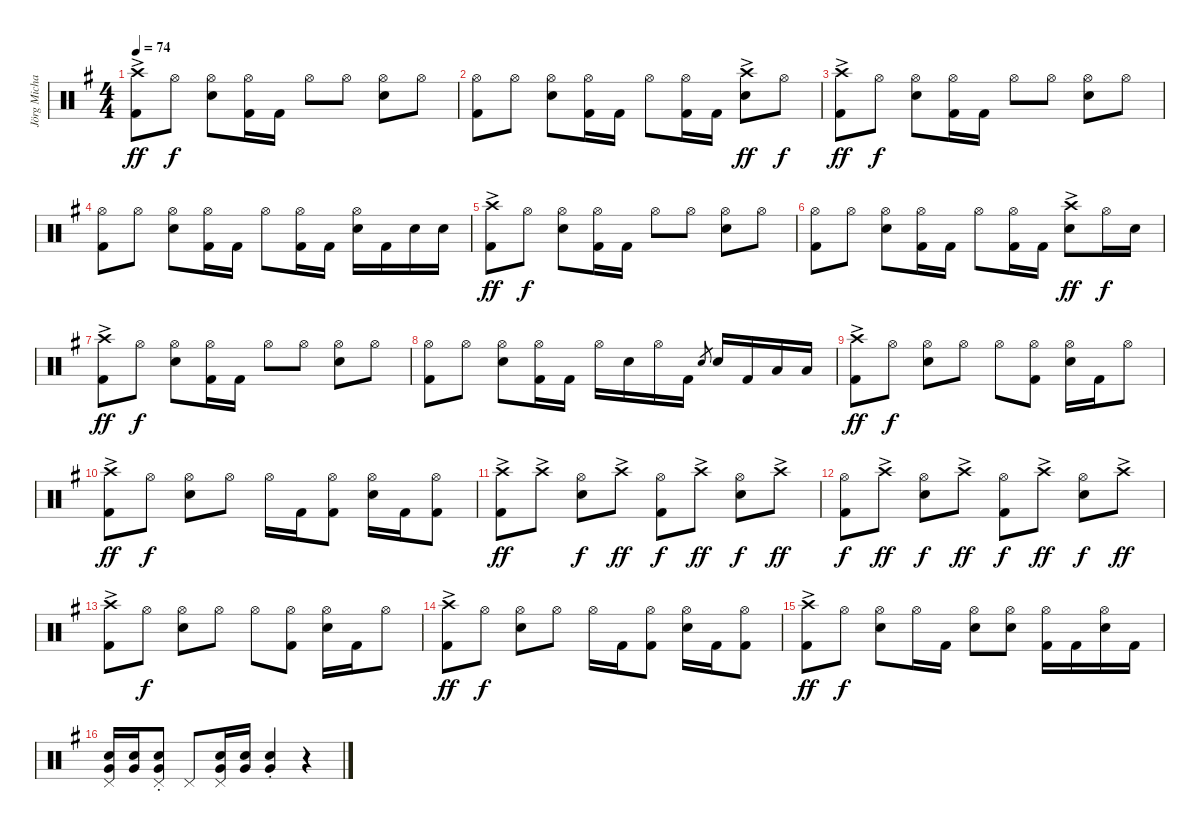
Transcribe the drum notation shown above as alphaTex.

\track ("Jörg Michael" "Jörg Micha") {instrument percussion}
\staff {score}
\articulation defaults
\ts (4 4)
\tempo 74
\clef neutral
\ks g
("Crash high (hit)"{ac} "Kick (hit) 2"{ac}).8{dy ff} "Hi-Hat (open)".8{dy f} ("Hi-Hat (open)" "Electric Snare (hit)").8 ("Hi-Hat (open)" "Kick (hit) 2").16 "Kick (hit) 2".16 "Hi-Hat (open)".8 "Hi-Hat (open)".8 ("Hi-Hat (open)" "Electric Snare (hit)").8 "Hi-Hat (open)".8 |
("Hi-Hat (open)" "Kick (hit) 2").8 "Hi-Hat (open)".8 ("Hi-Hat (open)" "Electric Snare (hit)").8 ("Hi-Hat (open)" "Kick (hit) 2").16 "Kick (hit) 2".16 "Hi-Hat (open)".8 ("Hi-Hat (open)" "Kick (hit) 2").16 "Kick (hit) 2".16 ("Crash high (hit)"{ac} "Electric Snare (hit)"{ac}).8{dy ff} "Hi-Hat (open)".8{dy f} |
("Crash high (hit)"{ac} "Kick (hit) 2"{ac}).8{dy ff} "Hi-Hat (open)".8{dy f} ("Hi-Hat (open)" "Electric Snare (hit)").8 ("Hi-Hat (open)" "Kick (hit) 2").16 "Kick (hit) 2".16 "Hi-Hat (open)".8 "Hi-Hat (open)".8 ("Hi-Hat (open)" "Electric Snare (hit)").8 "Hi-Hat (open)".8 |
("Hi-Hat (open)" "Kick (hit) 2").8 "Hi-Hat (open)".8 ("Hi-Hat (open)" "Electric Snare (hit)").8 ("Hi-Hat (open)" "Kick (hit) 2").16 "Kick (hit) 2".16 "Hi-Hat (open)".8 ("Hi-Hat (open)" "Kick (hit) 2").16 "Kick (hit) 2".16 ("Hi-Hat (open)" "Electric Snare (hit)").16 "Kick (hit) 2".16 "Electric Snare (hit)".16 "Electric Snare (hit)".16 |
("Crash high (hit)"{ac} "Kick (hit) 2"{ac}).8{dy ff} "Hi-Hat (open)".8{dy f} ("Hi-Hat (open)" "Electric Snare (hit)").8 ("Hi-Hat (open)" "Kick (hit) 2").16 "Kick (hit) 2".16 "Hi-Hat (open)".8 "Hi-Hat (open)".8 ("Hi-Hat (open)" "Electric Snare (hit)").8 "Hi-Hat (open)".8 |
("Hi-Hat (open)" "Kick (hit) 2").8 "Hi-Hat (open)".8 ("Hi-Hat (open)" "Electric Snare (hit)").8 ("Hi-Hat (open)" "Kick (hit) 2").16 "Kick (hit) 2".16 "Hi-Hat (open)".8 ("Hi-Hat (open)" "Kick (hit) 2").16 "Kick (hit) 2".16 ("Crash high (hit)"{ac} "Electric Snare (hit)"{ac}).8{dy ff} "Hi-Hat (open)".16{dy f} "Electric Snare (hit)".16 |
("Crash high (hit)"{ac} "Kick (hit) 2"{ac}).8{dy ff} "Hi-Hat (open)".8{dy f} ("Hi-Hat (open)" "Electric Snare (hit)").8 ("Hi-Hat (open)" "Kick (hit) 2").16 "Kick (hit) 2".16 "Hi-Hat (open)".8 "Hi-Hat (open)".8 ("Hi-Hat (open)" "Electric Snare (hit)").8 "Hi-Hat (open)".8 |
("Hi-Hat (open)" "Kick (hit) 2").8 "Hi-Hat (open)".8 ("Hi-Hat (open)" "Electric Snare (hit)").8 ("Hi-Hat (open)" "Kick (hit) 2").16 "Kick (hit) 2".16 "Hi-Hat (open)".16 "Electric Snare (hit)".16 "Hi-Hat (open)".16 "Kick (hit) 2".16 "Electric Snare (hit)".8{gr} "Electric Snare (hit)".16 "Kick (hit) 2".16 "Low Tom (hit)".16 "Low Tom (hit)".16 |
("Crash high (hit)"{ac} "Kick (hit) 2"{ac}).8{dy ff} "Hi-Hat (open)".8{dy f} ("Hi-Hat (open)" "Electric Snare (hit)").8 "Hi-Hat (open)".8 "Hi-Hat (open)".8 ("Hi-Hat (open)" "Kick (hit) 2").8 ("Hi-Hat (open)" "Electric Snare (hit)").16 "Kick (hit) 2".16 "Hi-Hat (open)".8 |
("Crash high (hit)"{ac} "Kick (hit) 2"{ac}).8{dy ff} "Hi-Hat (open)".8{dy f} ("Hi-Hat (open)" "Electric Snare (hit)").8 "Hi-Hat (open)".8 "Hi-Hat (open)".16 "Kick (hit) 2".16 ("Hi-Hat (open)" "Kick (hit) 2").8 ("Hi-Hat (open)" "Electric Snare (hit)").16 "Kick (hit) 2".16 ("Hi-Hat (open)" "Kick (hit) 2").8 |
("Crash high (hit)"{ac} "Kick (hit) 2"{ac}).8{dy ff} "Crash high (hit)"{ac}.8 ("Hi-Hat (open)" "Electric Snare (hit)").8{dy f} "Crash high (hit)"{ac}.8{dy ff} ("Hi-Hat (open)" "Kick (hit) 2").8{dy f} "Crash high (hit)"{ac}.8{dy ff} ("Hi-Hat (open)" "Electric Snare (hit)").8{dy f} "Crash high (hit)"{ac}.8{dy ff} |
("Hi-Hat (open)" "Kick (hit) 2").8{dy f} "Crash high (hit)"{ac}.8{dy ff} ("Hi-Hat (open)" "Electric Snare (hit)").8{dy f} "Crash high (hit)"{ac}.8{dy ff} ("Hi-Hat (open)" "Kick (hit) 2").8{dy f} "Crash high (hit)"{ac}.8{dy ff} ("Hi-Hat (open)" "Electric Snare (hit)").8{dy f} "Crash high (hit)"{ac}.8{dy ff} |
("Crash high (hit)"{ac} "Kick (hit) 2"{ac}).8 "Hi-Hat (open)".8{dy f} ("Hi-Hat (open)" "Electric Snare (hit)").8 "Hi-Hat (open)".8 "Hi-Hat (open)".8 ("Hi-Hat (open)" "Kick (hit) 2").8 ("Hi-Hat (open)" "Electric Snare (hit)").16 "Kick (hit) 2".16 "Hi-Hat (open)".8 |
("Crash high (hit)"{ac} "Kick (hit) 2"{ac}).8{dy ff} "Hi-Hat (open)".8{dy f} ("Hi-Hat (open)" "Electric Snare (hit)").8 "Hi-Hat (open)".8 "Hi-Hat (open)".16 "Kick (hit) 2".16 ("Hi-Hat (open)" "Kick (hit) 2").8 ("Hi-Hat (open)" "Electric Snare (hit)").16 "Kick (hit) 2".16 ("Kick (hit) 2" "Hi-Hat (open)").8 |
("Crash high (hit)"{ac} "Kick (hit) 2"{ac}).8{dy ff} "Hi-Hat (open)".8{dy f} ("Hi-Hat (open)" "Electric Snare (hit)").8 "Hi-Hat (open)".16 "Kick (hit) 2".16 ("Hi-Hat (open)" "Electric Snare (hit)").8 ("Hi-Hat (open)" "Electric Snare (hit)").8 ("Hi-Hat (open)" "Kick (hit) 2").16 "Kick (hit) 2".16 ("Hi-Hat (open)" "Electric Snare (hit)").16 "Kick (hit) 2".16 |
("Electric Snare (hit)" "Very Low Tom (hit)" "Pedal Hi-Hat (hit)").16 ("Electric Snare (hit)" "Very Low Tom (hit)").16 ("Electric Snare (hit)"{st} "Very Low Tom (hit)"{st} "Pedal Hi-Hat (hit)").8 "Pedal Hi-Hat (hit)".8 ("Electric Snare (hit)" "Very Low Tom (hit)" "Pedal Hi-Hat (hit)").16 ("Electric Snare (hit)" "Very Low Tom (hit)").16 ("Electric Snare (hit)"{st} "Very Low Tom (hit)"{st}).4 r.4
